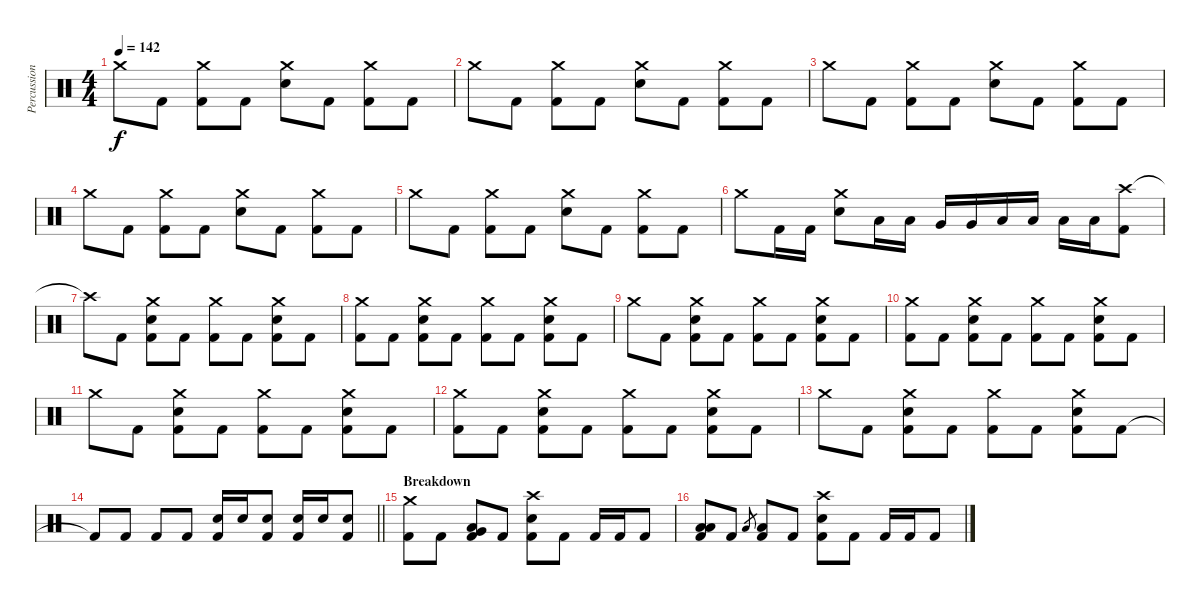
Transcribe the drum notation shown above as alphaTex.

\track ("Percussion" "Percussion") {instrument percussion}
\staff {score}
\articulation defaults
\ts (4 4)
\tempo 142
\clef neutral
\ks c "Crash medium (hit)".8{dy f} "Kick (hit) 2".8
("Crash medium (hit)" "Kick (hit) 2").8 "Kick (hit) 2".8 ("Crash medium (hit)" "Electric Snare (hit)").8 "Kick (hit) 2".8 ("Crash medium (hit)" "Kick (hit) 2").8 "Kick (hit) 2".8 |
"Crash medium (hit)".8 "Kick (hit) 2".8 ("Crash medium (hit)" "Kick (hit) 2").8 "Kick (hit) 2".8 ("Crash medium (hit)" "Electric Snare (hit)").8 "Kick (hit) 2".8 ("Crash medium (hit)" "Kick (hit) 2").8 "Kick (hit) 2".8 |
"Crash medium (hit)".8 "Kick (hit) 2".8 ("Crash medium (hit)" "Kick (hit) 2").8 "Kick (hit) 2".8 ("Crash medium (hit)" "Electric Snare (hit)").8 "Kick (hit) 2".8 ("Crash medium (hit)" "Kick (hit) 2").8 "Kick (hit) 2".8 |
"Crash medium (hit)".8 "Kick (hit) 2".8 ("Crash medium (hit)" "Kick (hit) 2").8 "Kick (hit) 2".8 ("Crash medium (hit)" "Electric Snare (hit)").8 "Kick (hit) 2".8 ("Crash medium (hit)" "Kick (hit) 2").8 "Kick (hit) 2".8 |
"Crash medium (hit)".8 "Kick (hit) 2".8 ("Crash medium (hit)" "Kick (hit) 2").8 "Kick (hit) 2".8 ("Crash medium (hit)" "Electric Snare (hit)").8 "Kick (hit) 2".8 ("Crash medium (hit)" "Kick (hit) 2").8 "Kick (hit) 2".8 |
"Crash medium (hit)".8 "Kick (hit) 2".16 "Kick (hit) 2".16 ("Crash medium (hit)" "Electric Snare (hit)").8 "Low Tom (hit)".16 "Low Tom (hit)".16 "Very Low Tom (hit)".16 "Very Low Tom (hit)".16 "Low Floor Tom (hit)".16 "Low Floor Tom (hit)".16 "Low Floor Tom (hit)".16 "Low Floor Tom (hit)".16 ("Crash high (hit)" "Kick (hit) 2").8 |
"Crash high (hit)"{t}.8 "Kick (hit) 2".8 ("Crash medium (hit)" "Electric Snare (hit)" "Kick (hit) 2").8 "Kick (hit) 2".8 ("Crash medium (hit)" "Kick (hit) 2").8 "Kick (hit) 2".8 ("Crash medium (hit)" "Electric Snare (hit)" "Kick (hit) 2").8 "Kick (hit) 2".8 |
("Crash medium (hit)" "Kick (hit) 2").8 "Kick (hit) 2".8 ("Crash medium (hit)" "Electric Snare (hit)" "Kick (hit) 2").8 "Kick (hit) 2".8 ("Crash medium (hit)" "Kick (hit) 2").8 "Kick (hit) 2".8 ("Crash medium (hit)" "Electric Snare (hit)" "Kick (hit) 2").8 "Kick (hit) 2".8 |
"Crash medium (hit)".8 "Kick (hit) 2".8 ("Crash medium (hit)" "Electric Snare (hit)" "Kick (hit) 2").8 "Kick (hit) 2".8 ("Crash medium (hit)" "Kick (hit) 2").8 "Kick (hit) 2".8 ("Crash medium (hit)" "Electric Snare (hit)" "Kick (hit) 2").8 "Kick (hit) 2".8 |
("Crash medium (hit)" "Kick (hit) 2").8 "Kick (hit) 2".8 ("Crash medium (hit)" "Electric Snare (hit)" "Kick (hit) 2").8 "Kick (hit) 2".8 ("Crash medium (hit)" "Kick (hit) 2").8 "Kick (hit) 2".8 ("Crash medium (hit)" "Electric Snare (hit)" "Kick (hit) 2").8 "Kick (hit) 2".8 |
"Crash medium (hit)".8 "Kick (hit) 2".8 ("Crash medium (hit)" "Electric Snare (hit)" "Kick (hit) 2").8 "Kick (hit) 2".8 ("Crash medium (hit)" "Kick (hit) 2").8 "Kick (hit) 2".8 ("Crash medium (hit)" "Electric Snare (hit)" "Kick (hit) 2").8 "Kick (hit) 2".8 |
("Crash medium (hit)" "Kick (hit) 2").8 "Kick (hit) 2".8 ("Crash medium (hit)" "Electric Snare (hit)" "Kick (hit) 2").8 "Kick (hit) 2".8 ("Crash medium (hit)" "Kick (hit) 2").8 "Kick (hit) 2".8 ("Crash medium (hit)" "Electric Snare (hit)" "Kick (hit) 2").8 "Kick (hit) 2".8 |
"Crash medium (hit)".8 "Kick (hit) 2".8 ("Crash medium (hit)" "Electric Snare (hit)" "Kick (hit) 2").8 "Kick (hit) 2".8 ("Crash medium (hit)" "Kick (hit) 2").8 "Kick (hit) 2".8 ("Crash medium (hit)" "Electric Snare (hit)" "Kick (hit) 2").8 "Kick (hit) 2".8 |
\barLineRight lightlight "Kick (hit) 2"{t}.8 "Kick (hit) 2".8 "Kick (hit) 2".8 "Kick (hit) 2".8
("Electric Snare (hit)" "Kick (hit) 2").16 "Electric Snare (hit)".16 ("Electric Snare (hit)" "Kick (hit) 2").8 ("Electric Snare (hit)" "Kick (hit) 2").16 "Electric Snare (hit)".16 ("Electric Snare (hit)" "Kick (hit) 2").8 |
\section ("" "Breakdown")
("Crash medium (hit)" "Kick (hit) 2").8 "Kick (hit) 2".8 ("Very Low Tom (hit)" "Low Floor Tom (hit)" "Kick (hit) 2").8 "Kick (hit) 2".8 ("Crash high (hit)" "Electric Snare (hit)" "Kick (hit) 2").8 "Kick (hit) 2".8 "Kick (hit) 2".16 "Kick (hit) 2".16 "Kick (hit) 2".8 |
("Low Tom (hit)" "Low Floor Tom (hit)" "Kick (hit) 2").8 "Kick (hit) 2".8 "Low Tom (hit)".8{gr} ("Low Tom (hit)" "Kick (hit) 2").8 "Kick (hit) 2".8 ("Crash high (hit)" "Electric Snare (hit)" "Kick (hit) 2").8 "Kick (hit) 2".8 "Kick (hit) 2".16 "Kick (hit) 2".16 "Kick (hit) 2".8
